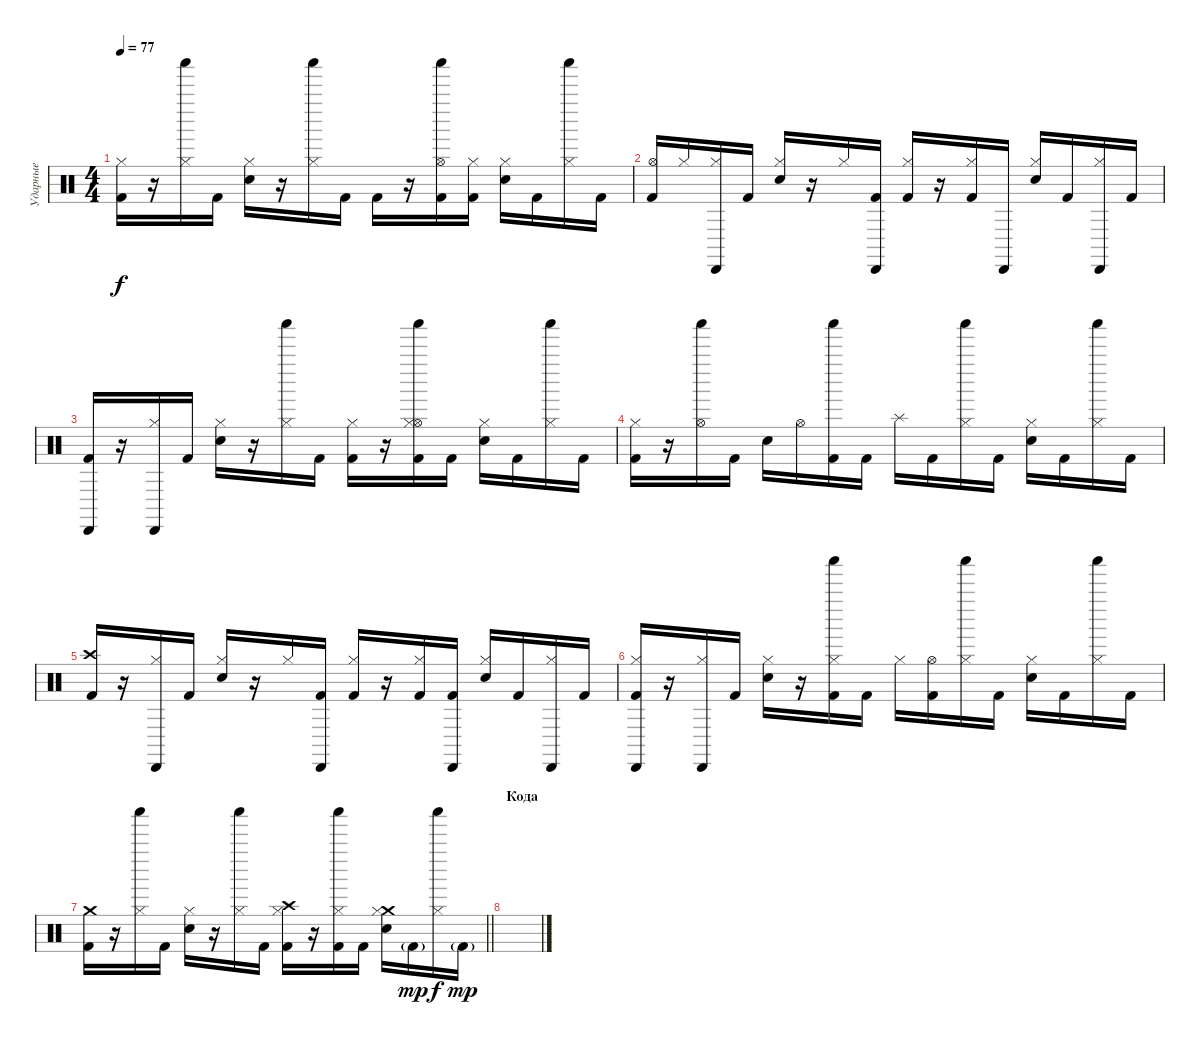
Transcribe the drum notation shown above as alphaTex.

\track ("Ударные" "Ударные") {instrument percussion}
\staff {score}
\articulation defaults
\ts (4 4)
\tempo 77
\clef neutral
\ks c
("Kick (hit) 2" "Hi-Hat (closed)").16{dy f} r.16 ("Hi-Hat (closed)" "Shaker (hit)").16 "Kick (hit) 2".16 ("Electric Snare (hit)" "Hi-Hat (closed)").16 r.16 ("Hi-Hat (closed)" "Shaker (hit)").16 "Kick (hit) 2".16 "Kick (hit) 2".16 r.16 ("Hi-Hat (open)" "Kick (hit) 2" "Shaker (hit)").16 ("Kick (hit) 2" "Hi-Hat (closed)").16 ("Electric Snare (hit)" "Hi-Hat (closed)").16 "Kick (hit) 2".16 ("Hi-Hat (closed)" "Shaker (hit)").16 "Kick (hit) 2".16 |
("Hi-Hat (open)" "Kick (hit) 2").16 "Hi-Hat (closed)".16 ("Hi-Hat (closed)" "Cabasa (hit)").16 "Kick (hit) 2".16 ("Electric Snare (hit)" "Hi-Hat (closed)").16 r.16 "Hi-Hat (closed)".16 ("Kick (hit) 2" "Cabasa (hit)").16 ("Hi-Hat (closed)" "Kick (hit) 2").16 r.16 ("Hi-Hat (closed)" "Kick (hit) 2").16 "Cabasa (hit)".16 ("Electric Snare (hit)" "Hi-Hat (closed)").16 "Kick (hit) 2".16 ("Hi-Hat (closed)" "Cabasa (hit)").16 "Kick (hit) 2".16 |
("Kick (hit) 2" "Cabasa (hit)").16 r.16 ("Hi-Hat (closed)" "Cabasa (hit)").16 "Kick (hit) 2".16 ("Electric Snare (hit)" "Hi-Hat (closed)").16 r.16 ("Hi-Hat (closed)" "Shaker (hit)").16 "Kick (hit) 2".16 ("Kick (hit) 2" "Hi-Hat (closed)").16 r.16 ("Hi-Hat (open)" "Kick (hit) 2" "Hi-Hat (closed)" "Shaker (hit)").16 "Kick (hit) 2".16 ("Electric Snare (hit)" "Hi-Hat (closed)").16 "Kick (hit) 2".16 ("Hi-Hat (closed)" "Shaker (hit)").16 "Kick (hit) 2".16 |
("Kick (hit) 2" "Hi-Hat (closed)").16 r.16 ("Hi-Hat (open)" "Shaker (hit)").16 "Kick (hit) 2".16 "Electric Snare (hit)".16 "Hi-Hat (open)".16 ("Kick (hit) 2" "Shaker (hit)").16 "Kick (hit) 2".16 "Splash (hit)".16 "Kick (hit) 2".16 ("Hi-Hat (closed)" "Shaker (hit)").16 "Kick (hit) 2".16 ("Electric Snare (hit)" "Hi-Hat (closed)").16 "Kick (hit) 2".16 ("Hi-Hat (closed)" "Shaker (hit)").16 "Kick (hit) 2".16 |
("Crash high (hit)" "Kick (hit) 2").16 r.16 ("Hi-Hat (closed)" "Cabasa (hit)").16 "Kick (hit) 2".16 ("Electric Snare (hit)" "Hi-Hat (closed)").16 r.16 "Hi-Hat (closed)".16 ("Kick (hit) 2" "Cabasa (hit)").16 ("Kick (hit) 2" "Hi-Hat (closed)").16 r.16 ("Kick (hit) 2" "Hi-Hat (closed)").16 ("Kick (hit) 2" "Cabasa (hit)").16 ("Electric Snare (hit)" "Hi-Hat (closed)").16 "Kick (hit) 2".16 ("Hi-Hat (closed)" "Cabasa (hit)").16 "Kick (hit) 2".16 |
("Kick (hit) 2" "Hi-Hat (closed)" "Cabasa (hit)").16 r.16 ("Hi-Hat (closed)" "Cabasa (hit)").16 "Kick (hit) 2".16 ("Electric Snare (hit)" "Hi-Hat (closed)").16 r.16 ("Kick (hit) 2" "Hi-Hat (closed)" "Shaker (hit)").16 "Kick (hit) 2".16 "Hi-Hat (closed)".16 ("Hi-Hat (open)" "Kick (hit) 2").16 ("Hi-Hat (closed)" "Shaker (hit)").16 "Kick (hit) 2".16 ("Electric Snare (hit)" "Hi-Hat (closed)").16 "Kick (hit) 2".16 ("Hi-Hat (closed)" "Shaker (hit)").16 "Kick (hit) 2".16 |
\barLineRight lightlight
("Crash medium (hit)" "Kick (hit) 2").16 r.16 ("Hi-Hat (closed)" "Shaker (hit)").16 "Kick (hit) 2".16 ("Electric Snare (hit)" "Hi-Hat (closed)").16 r.16 ("Hi-Hat (closed)" "Shaker (hit)").16 "Kick (hit) 2".16 ("Crash high (hit)" "Kick (hit) 2" "Hi-Hat (closed)").16 r.16 ("Kick (hit) 2" "Hi-Hat (closed)" "Shaker (hit)").16 "Kick (hit) 2".16 ("Crash medium (hit)" "Electric Snare (hit)" "Hi-Hat (closed)").16 "Kick (hit) 2"{g}.16{dy mp} ("Hi-Hat (closed)" "Shaker (hit)").16{dy f} "Kick (hit) 2"{g}.16{dy mp} |
\section ("" "Кода")
